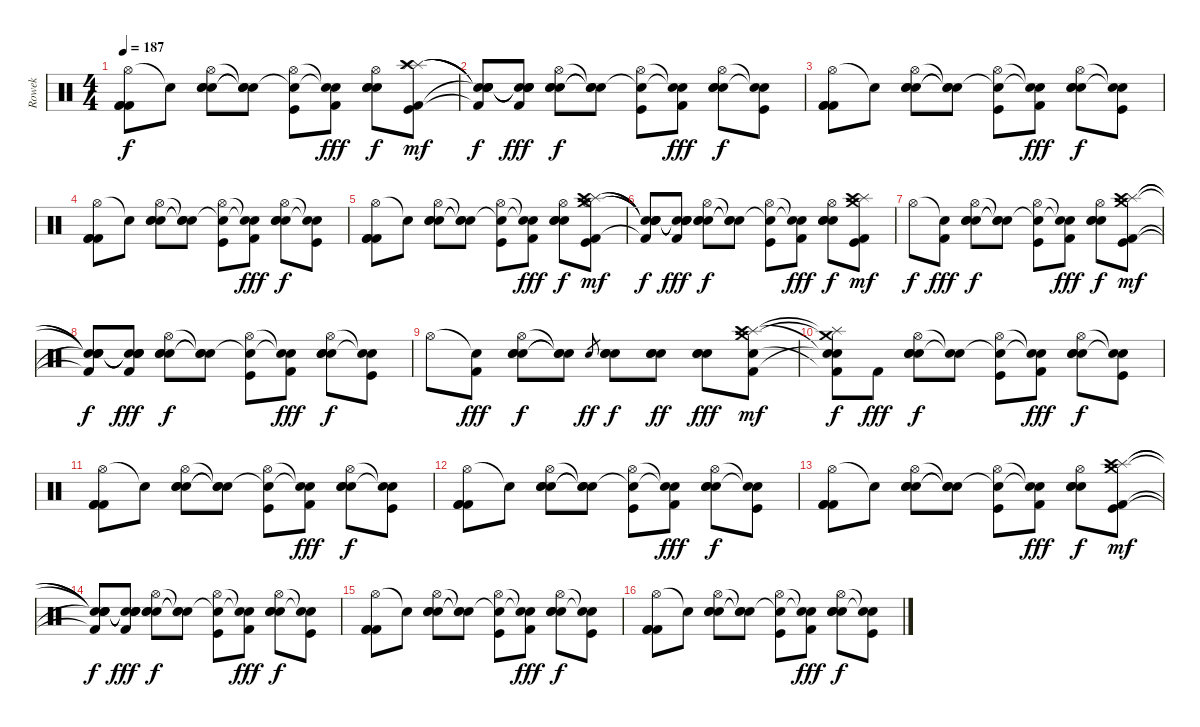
\track ("Rowek" "Rowek") {instrument percussion}
\staff {score}
\articulation defaults
\ts (4 4)
\tempo 187
\clef neutral
\ks c
("Hi-Hat (open)" "Kick (hit) 2" "Kick (hit) 2" "Kick (hit) 2").8{dy f} "Snare (hit)"{t}.8 ("Hi-Hat (open)" "Electric Snare (hit)" "Electric Snare (hit)" "Electric Snare (hit)").8 ("Snare (hit)"{t} "Snare (hit)"{t} "Snare (hit)"{t}).8 ("Hi-Hat (open)" "Snare (hit)"{t} "Kick (hit)").8 ("Snare (hit)"{t} "Snare (hit)"{t} "Kick (hit) 2").8{dy fff} ("Hi-Hat (open)" "Electric Snare (hit)" "Electric Snare (hit)" "Electric Snare (hit)").8{dy f} ("Splash (hit)" "Splash (hit)" "Crash high (hit)" "Kick (hit) 2" "Kick (hit)").8{dy mf} |
("Snare (hit)"{t} "Snare (hit)"{t} "Snare (hit)"{t} "Snare (hit)"{t} "Kick (hit) 2"{t}).8{dy f} ("Snare (hit)"{t} "Snare (hit)"{t} "Snare (hit)"{t} "Snare (hit)"{t} "Kick (hit) 2").8{dy fff} ("Hi-Hat (open)" "Electric Snare (hit)" "Electric Snare (hit)" "Electric Snare (hit)").8{dy f} ("Snare (hit)"{t} "Snare (hit)"{t} "Snare (hit)"{t}).8 ("Hi-Hat (open)" "Snare (hit)"{t} "Kick (hit)").8 ("Snare (hit)"{t} "Snare (hit)"{t} "Kick (hit) 2").8{dy fff} ("Hi-Hat (open)" "Electric Snare (hit)" "Electric Snare (hit)" "Electric Snare (hit)").8{dy f} ("Snare (hit)"{t} "Snare (hit)"{t} "Kick (hit)").8 |
("Hi-Hat (open)" "Kick (hit) 2" "Kick (hit) 2" "Kick (hit) 2").8 "Snare (hit)"{t}.8 ("Hi-Hat (open)" "Electric Snare (hit)" "Electric Snare (hit)" "Electric Snare (hit)").8 ("Snare (hit)"{t} "Snare (hit)"{t} "Snare (hit)"{t}).8 ("Hi-Hat (open)" "Snare (hit)"{t} "Kick (hit)").8 ("Snare (hit)"{t} "Snare (hit)"{t} "Kick (hit) 2").8{dy fff} ("Hi-Hat (open)" "Electric Snare (hit)" "Electric Snare (hit)" "Electric Snare (hit)").8{dy f} ("Snare (hit)"{t} "Snare (hit)"{t} "Kick (hit)").8 |
("Hi-Hat (open)" "Kick (hit) 2" "Kick (hit) 2" "Kick (hit) 2").8 "Snare (hit)"{t}.8 ("Hi-Hat (open)" "Electric Snare (hit)" "Electric Snare (hit)" "Electric Snare (hit)").8 ("Snare (hit)"{t} "Snare (hit)"{t} "Snare (hit)"{t}).8 ("Hi-Hat (open)" "Snare (hit)"{t} "Kick (hit)").8 ("Snare (hit)"{t} "Snare (hit)"{t} "Kick (hit) 2").8{dy fff} ("Hi-Hat (open)" "Electric Snare (hit)" "Electric Snare (hit)" "Electric Snare (hit)").8{dy f} ("Snare (hit)"{t} "Snare (hit)"{t} "Kick (hit)").8 |
("Hi-Hat (open)" "Kick (hit) 2" "Kick (hit) 2" "Kick (hit) 2").8 "Snare (hit)"{t}.8 ("Hi-Hat (open)" "Electric Snare (hit)" "Electric Snare (hit)" "Electric Snare (hit)").8 ("Snare (hit)"{t} "Snare (hit)"{t} "Snare (hit)"{t}).8 ("Hi-Hat (open)" "Snare (hit)"{t} "Kick (hit)").8 ("Snare (hit)"{t} "Snare (hit)"{t} "Kick (hit) 2").8{dy fff} ("Hi-Hat (open)" "Electric Snare (hit)" "Electric Snare (hit)" "Electric Snare (hit)").8{dy f} ("Crash medium (hit)" "Splash (hit)" "Hi-Hat (open)" "Crash high (hit)" "Kick (hit) 2" "Kick (hit)").8{dy mf} |
("Snare (hit)"{t} "Snare (hit)"{t} "Snare (hit)"{t} "Snare (hit)"{t} "Kick (hit) 2"{t}).8{dy f} ("Snare (hit)"{t} "Snare (hit)"{t} "Snare (hit)"{t} "Snare (hit)"{t} "Kick (hit) 2").8{dy fff} ("Hi-Hat (open)" "Electric Snare (hit)" "Electric Snare (hit)" "Electric Snare (hit)").8{dy f} ("Snare (hit)"{t} "Snare (hit)"{t} "Snare (hit)"{t}).8 ("Hi-Hat (open)" "Snare (hit)"{t} "Kick (hit)").8 ("Snare (hit)"{t} "Snare (hit)"{t} "Kick (hit) 2").8{dy fff} ("Hi-Hat (open)" "Electric Snare (hit)" "Electric Snare (hit)" "Electric Snare (hit)").8{dy f} ("Crash medium (hit)" "Splash (hit)" "Crash high (hit)" "Kick (hit) 2" "Kick (hit)").8{dy mf} |
"Hi-Hat (open)".8{dy f} ("Snare (hit)"{t} "Kick (hit) 2").8{dy fff} ("Hi-Hat (open)" "Electric Snare (hit)" "Electric Snare (hit)" "Electric Snare (hit)").8{dy f} ("Snare (hit)"{t} "Snare (hit)"{t} "Snare (hit)"{t}).8 ("Hi-Hat (open)" "Snare (hit)"{t} "Kick (hit)").8 ("Snare (hit)"{t} "Snare (hit)"{t} "Kick (hit) 2").8{dy fff} ("Hi-Hat (open)" "Electric Snare (hit)" "Electric Snare (hit)" "Electric Snare (hit)").8{dy f} ("Crash medium (hit)" "Splash (hit)" "Crash high (hit)" "Kick (hit) 2" "Kick (hit)").8{dy mf} |
("Snare (hit)"{t} "Snare (hit)"{t} "Snare (hit)"{t} "Snare (hit)"{t} "Kick (hit) 2"{t}).8{dy f} ("Snare (hit)"{t} "Snare (hit)"{t} "Snare (hit)"{t} "Snare (hit)"{t} "Kick (hit) 2").8{dy fff} ("Hi-Hat (open)" "Electric Snare (hit)" "Electric Snare (hit)" "Electric Snare (hit)").8{dy f} ("Snare (hit)"{t} "Snare (hit)"{t} "Snare (hit)"{t}).8 ("Hi-Hat (open)" "Snare (hit)"{t} "Kick (hit)").8 ("Snare (hit)"{t} "Snare (hit)"{t} "Kick (hit) 2").8{dy fff} ("Hi-Hat (open)" "Electric Snare (hit)" "Electric Snare (hit)" "Electric Snare (hit)").8{dy f} ("Snare (hit)"{t} "Snare (hit)"{t} "Kick (hit)").8 |
"Hi-Hat (open)".8 ("Snare (hit)"{t} "Kick (hit) 2").8{dy fff} ("Hi-Hat (open)" "Electric Snare (hit)" "Electric Snare (hit)" "Electric Snare (hit)").8{dy f} ("Snare (hit)"{t} "Snare (hit)"{t} "Snare (hit)"{t}).8 "Electric Snare (hit)".8{gr dy ff} ("Electric Snare (hit)" "Electric Snare (hit)" "Electric Snare (hit)").8{dy f} ("Electric Snare (hit)" "Electric Snare (hit)" "Electric Snare (hit)").8{dy ff} ("Electric Snare (hit)" "Electric Snare (hit)" "Electric Snare (hit)").8{dy fff} ("Crash medium (hit)" "Splash (hit)" "Crash high (hit)" "Kick (hit) 2" "Snare (hit)").8{dy mf} |
("Crash medium (hit)"{t} "Splash (hit)"{t} "Snare (hit)"{t} "Snare (hit)"{t} "Kick (hit) 2"{t}).8{dy f} "Kick (hit) 2".8{dy fff} ("Hi-Hat (open)" "Electric Snare (hit)" "Electric Snare (hit)" "Electric Snare (hit)").8{dy f} ("Snare (hit)"{t} "Snare (hit)"{t}).8 ("Hi-Hat (open)" "Snare (hit)"{t} "Kick (hit)").8 ("Snare (hit)"{t} "Snare (hit)"{t} "Kick (hit) 2").8{dy fff} ("Hi-Hat (open)" "Electric Snare (hit)" "Electric Snare (hit)" "Electric Snare (hit)").8{dy f} ("Snare (hit)"{t} "Snare (hit)"{t} "Kick (hit)").8 |
("Hi-Hat (open)" "Kick (hit) 2" "Kick (hit) 2" "Kick (hit) 2").8 "Snare (hit)"{t}.8 ("Hi-Hat (open)" "Electric Snare (hit)" "Electric Snare (hit)" "Electric Snare (hit)").8 ("Snare (hit)"{t} "Snare (hit)"{t} "Snare (hit)"{t}).8 ("Hi-Hat (open)" "Snare (hit)"{t} "Kick (hit)").8 ("Snare (hit)"{t} "Snare (hit)"{t} "Kick (hit) 2").8{dy fff} ("Hi-Hat (open)" "Electric Snare (hit)" "Electric Snare (hit)" "Electric Snare (hit)").8{dy f} ("Snare (hit)"{t} "Snare (hit)"{t} "Kick (hit)").8 |
("Hi-Hat (open)" "Kick (hit) 2" "Kick (hit) 2" "Kick (hit) 2").8 "Snare (hit)"{t}.8 ("Hi-Hat (open)" "Electric Snare (hit)" "Electric Snare (hit)" "Electric Snare (hit)").8 ("Snare (hit)"{t} "Snare (hit)"{t} "Snare (hit)"{t}).8 ("Hi-Hat (open)" "Snare (hit)"{t} "Kick (hit)").8 ("Snare (hit)"{t} "Snare (hit)"{t} "Kick (hit) 2").8{dy fff} ("Hi-Hat (open)" "Electric Snare (hit)" "Electric Snare (hit)" "Electric Snare (hit)").8{dy f} ("Snare (hit)"{t} "Snare (hit)"{t} "Kick (hit)").8 |
("Hi-Hat (open)" "Kick (hit) 2" "Kick (hit) 2" "Kick (hit) 2").8 "Snare (hit)"{t}.8 ("Hi-Hat (open)" "Electric Snare (hit)" "Electric Snare (hit)" "Electric Snare (hit)").8 ("Snare (hit)"{t} "Snare (hit)"{t} "Snare (hit)"{t}).8 ("Hi-Hat (open)" "Snare (hit)"{t} "Kick (hit)").8 ("Snare (hit)"{t} "Snare (hit)"{t} "Kick (hit) 2").8{dy fff} ("Hi-Hat (open)" "Electric Snare (hit)" "Electric Snare (hit)" "Electric Snare (hit)").8{dy f} ("Crash medium (hit)" "Splash (hit)" "Crash high (hit)" "Kick (hit) 2" "Kick (hit)").8{dy mf} |
("Snare (hit)"{t} "Snare (hit)"{t} "Snare (hit)"{t} "Snare (hit)"{t} "Kick (hit) 2"{t}).8{dy f} ("Snare (hit)"{t} "Snare (hit)"{t} "Snare (hit)"{t} "Snare (hit)"{t} "Kick (hit) 2").8{dy fff} ("Hi-Hat (open)" "Electric Snare (hit)" "Electric Snare (hit)" "Electric Snare (hit)").8{dy f} ("Snare (hit)"{t} "Snare (hit)"{t} "Snare (hit)"{t}).8 ("Hi-Hat (open)" "Snare (hit)"{t} "Kick (hit)").8 ("Snare (hit)"{t} "Snare (hit)"{t} "Kick (hit) 2").8{dy fff} ("Hi-Hat (open)" "Electric Snare (hit)" "Electric Snare (hit)" "Electric Snare (hit)").8{dy f} ("Snare (hit)"{t} "Snare (hit)"{t} "Kick (hit)").8 |
("Hi-Hat (open)" "Kick (hit) 2" "Kick (hit) 2" "Kick (hit) 2").8 "Snare (hit)"{t}.8 ("Hi-Hat (open)" "Electric Snare (hit)" "Electric Snare (hit)" "Electric Snare (hit)").8 ("Snare (hit)"{t} "Snare (hit)"{t} "Snare (hit)"{t}).8 ("Hi-Hat (open)" "Snare (hit)"{t} "Kick (hit)").8 ("Snare (hit)"{t} "Snare (hit)"{t} "Kick (hit) 2").8{dy fff} ("Hi-Hat (open)" "Electric Snare (hit)" "Electric Snare (hit)" "Electric Snare (hit)").8{dy f} ("Snare (hit)"{t} "Snare (hit)"{t} "Kick (hit)").8 |
("Hi-Hat (open)" "Kick (hit) 2" "Kick (hit) 2" "Kick (hit) 2").8 "Snare (hit)"{t}.8 ("Hi-Hat (open)" "Electric Snare (hit)" "Electric Snare (hit)" "Electric Snare (hit)").8 ("Snare (hit)"{t} "Snare (hit)"{t} "Snare (hit)"{t}).8 ("Hi-Hat (open)" "Snare (hit)"{t} "Kick (hit)").8 ("Snare (hit)"{t} "Snare (hit)"{t} "Kick (hit) 2").8{dy fff} ("Hi-Hat (open)" "Electric Snare (hit)" "Electric Snare (hit)" "Electric Snare (hit)").8{dy f} ("Snare (hit)"{t} "Snare (hit)"{t} "Kick (hit)").8
